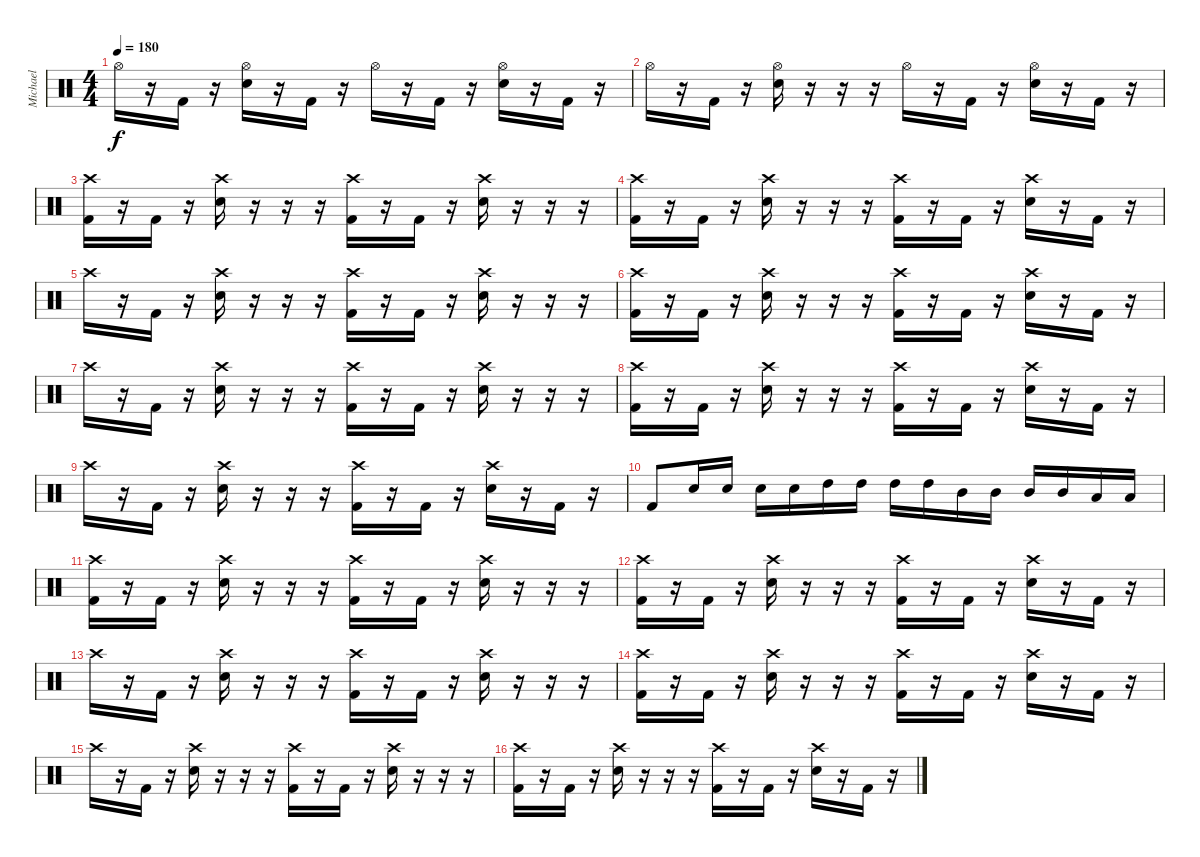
\track ("Michael" "Michael") {instrument percussion}
\staff {score}
\articulation defaults
\ts (4 4)
\tempo 180
\clef neutral
\ks c "Hi-Hat (open)".16{dy f}
r.16 "Kick (hit) 2".16 r.16 ("Hi-Hat (open)" "Electric Snare (hit)").16 r.16 "Kick (hit) 2".16 r.16 "Hi-Hat (open)".16 r.16 "Kick (hit) 2".16 r.16 ("Hi-Hat (open)" "Electric Snare (hit)").16 r.16 "Kick (hit) 2".16 r.16 |
"Hi-Hat (open)".16 r.16 "Kick (hit) 2".16 r.16 ("Hi-Hat (open)" "Electric Snare (hit)").16 r.16 r.16 r.16 "Hi-Hat (open)".16 r.16 "Kick (hit) 2".16 r.16 ("Hi-Hat (open)" "Electric Snare (hit)").16 r.16 "Kick (hit) 2".16 r.16 |
("Crash high (hit)" "Kick (hit) 2").16 r.16 "Kick (hit) 2".16 r.16 ("Crash high (hit)" "Electric Snare (hit)").16 r.16 r.16 r.16 ("Crash high (hit)" "Kick (hit) 2").16 r.16 "Kick (hit) 2".16 r.16 ("Crash high (hit)" "Electric Snare (hit)").16 r.16 r.16 r.16 |
("Crash high (hit)" "Kick (hit) 2").16 r.16 "Kick (hit) 2".16 r.16 ("Crash high (hit)" "Electric Snare (hit)").16 r.16 r.16 r.16 ("Crash high (hit)" "Kick (hit) 2").16 r.16 "Kick (hit) 2".16 r.16 ("Crash high (hit)" "Electric Snare (hit)").16 r.16 "Kick (hit) 2".16 r.16 |
"Crash high (hit)".16 r.16 "Kick (hit) 2".16 r.16 ("Crash high (hit)" "Electric Snare (hit)").16 r.16 r.16 r.16 ("Crash high (hit)" "Kick (hit) 2").16 r.16 "Kick (hit) 2".16 r.16 ("Crash high (hit)" "Electric Snare (hit)").16 r.16 r.16 r.16 |
("Crash high (hit)" "Kick (hit) 2").16 r.16 "Kick (hit) 2".16 r.16 ("Crash high (hit)" "Electric Snare (hit)").16 r.16 r.16 r.16 ("Crash high (hit)" "Kick (hit) 2").16 r.16 "Kick (hit) 2".16 r.16 ("Crash high (hit)" "Electric Snare (hit)").16 r.16 "Kick (hit) 2".16 r.16 |
"Crash high (hit)".16 r.16 "Kick (hit) 2".16 r.16 ("Crash high (hit)" "Electric Snare (hit)").16 r.16 r.16 r.16 ("Crash high (hit)" "Kick (hit) 2").16 r.16 "Kick (hit) 2".16 r.16 ("Crash high (hit)" "Electric Snare (hit)").16 r.16 r.16 r.16 |
("Crash high (hit)" "Kick (hit) 2").16 r.16 "Kick (hit) 2".16 r.16 ("Crash high (hit)" "Electric Snare (hit)").16 r.16 r.16 r.16 ("Crash high (hit)" "Kick (hit) 2").16 r.16 "Kick (hit) 2".16 r.16 ("Crash high (hit)" "Electric Snare (hit)").16 r.16 "Kick (hit) 2".16 r.16 |
"Crash high (hit)".16 r.16 "Kick (hit) 2".16 r.16 ("Crash high (hit)" "Electric Snare (hit)").16 r.16 r.16 r.16 ("Crash high (hit)" "Kick (hit) 2").16 r.16 "Kick (hit) 2".16 r.16 ("Crash high (hit)" "Electric Snare (hit)").16 r.16 "Kick (hit) 2".16 r.16 |
"Kick (hit) 2".8 "Electric Snare (hit)".16 "Electric Snare (hit)".16 "Electric Snare (hit)".16 "Electric Snare (hit)".16 "High Tom (hit)".16 "High Tom (hit)".16 "High Tom (hit)".16 "High Tom (hit)".16 "Mid Tom (hit)".16 "Mid Tom (hit)".16 "Mid Tom (hit)".16 "Mid Tom (hit)".16 "Low Tom (hit)".16 "Low Tom (hit)".16 |
("Crash high (hit)" "Kick (hit) 2").16 r.16 "Kick (hit) 2".16 r.16 ("Crash high (hit)" "Electric Snare (hit)").16 r.16 r.16 r.16 ("Crash high (hit)" "Kick (hit) 2").16 r.16 "Kick (hit) 2".16 r.16 ("Crash high (hit)" "Electric Snare (hit)").16 r.16 r.16 r.16 |
("Crash high (hit)" "Kick (hit) 2").16 r.16 "Kick (hit) 2".16 r.16 ("Crash high (hit)" "Electric Snare (hit)").16 r.16 r.16 r.16 ("Crash high (hit)" "Kick (hit) 2").16 r.16 "Kick (hit) 2".16 r.16 ("Crash high (hit)" "Electric Snare (hit)").16 r.16 "Kick (hit) 2".16 r.16 |
"Crash high (hit)".16 r.16 "Kick (hit) 2".16 r.16 ("Crash high (hit)" "Electric Snare (hit)").16 r.16 r.16 r.16 ("Crash high (hit)" "Kick (hit) 2").16 r.16 "Kick (hit) 2".16 r.16 ("Crash high (hit)" "Electric Snare (hit)").16 r.16 r.16 r.16 |
("Crash high (hit)" "Kick (hit) 2").16 r.16 "Kick (hit) 2".16 r.16 ("Crash high (hit)" "Electric Snare (hit)").16 r.16 r.16 r.16 ("Crash high (hit)" "Kick (hit) 2").16 r.16 "Kick (hit) 2".16 r.16 ("Crash high (hit)" "Electric Snare (hit)").16 r.16 "Kick (hit) 2".16 r.16 |
"Crash high (hit)".16 r.16 "Kick (hit) 2".16 r.16 ("Crash high (hit)" "Electric Snare (hit)").16 r.16 r.16 r.16 ("Crash high (hit)" "Kick (hit) 2").16 r.16 "Kick (hit) 2".16 r.16 ("Crash high (hit)" "Electric Snare (hit)").16 r.16 r.16 r.16 |
("Crash high (hit)" "Kick (hit) 2").16 r.16 "Kick (hit) 2".16 r.16 ("Crash high (hit)" "Electric Snare (hit)").16 r.16 r.16 r.16 ("Crash high (hit)" "Kick (hit) 2").16 r.16 "Kick (hit) 2".16 r.16 ("Crash high (hit)" "Electric Snare (hit)").16 r.16 "Kick (hit) 2".16 r.16
